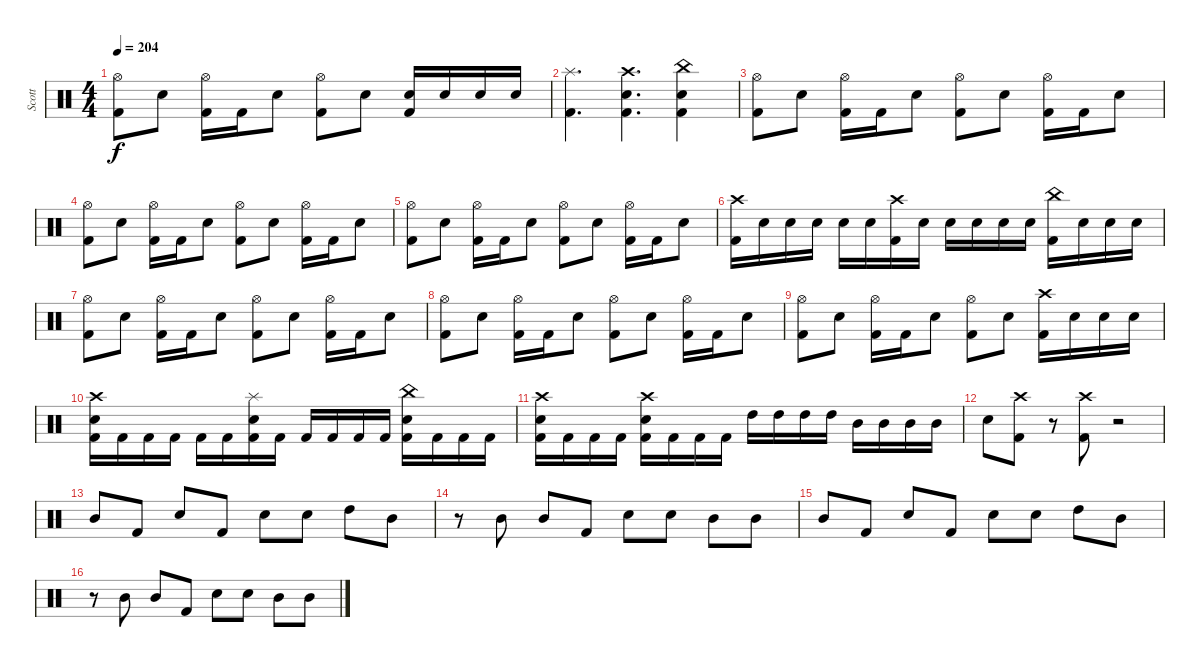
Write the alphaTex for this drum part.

\track ("Scott" "Scott") {instrument percussion}
\staff {score}
\articulation defaults
\ts (4 4)
\tempo 204
\clef neutral
\ks c
("Hi-Hat (open)" "Kick (hit) 2").8{dy f} "Snare (hit) 2".8 ("Hi-Hat (open)" "Kick (hit) 2").16 "Kick (hit) 2".16 "Snare (hit) 2".8 ("Hi-Hat (open)" "Kick (hit) 2").8 "Snare (hit) 2".8 ("Snare (hit) 2" "Kick (hit) 2").16 "Snare (hit) 2".16 "Snare (hit) 2".16 "Snare (hit) 2".16 |
("Splash (hit)" "Kick (hit) 2").4{d} ("Crash high (hit)" "Snare (hit) 2" "Kick (hit) 2").4{d} ("China (hit)" "Snare (hit) 2" "Kick (hit) 2").4 |
("Hi-Hat (open)" "Kick (hit) 2").8 "Snare (hit) 2".8 ("Hi-Hat (open)" "Kick (hit) 2").16 "Kick (hit) 2".16 "Snare (hit) 2".8 ("Hi-Hat (open)" "Kick (hit) 2").8 "Snare (hit) 2".8 ("Hi-Hat (open)" "Kick (hit) 2").16 "Kick (hit) 2".16 "Snare (hit) 2".8 |
("Hi-Hat (open)" "Kick (hit) 2").8 "Snare (hit) 2".8 ("Hi-Hat (open)" "Kick (hit) 2").16 "Kick (hit) 2".16 "Snare (hit) 2".8 ("Hi-Hat (open)" "Kick (hit) 2").8 "Snare (hit) 2".8 ("Hi-Hat (open)" "Kick (hit) 2").16 "Kick (hit) 2".16 "Snare (hit) 2".8 |
("Hi-Hat (open)" "Kick (hit) 2").8 "Snare (hit) 2".8 ("Hi-Hat (open)" "Kick (hit) 2").16 "Kick (hit) 2".16 "Snare (hit) 2".8 ("Hi-Hat (open)" "Kick (hit) 2").8 "Snare (hit) 2".8 ("Hi-Hat (open)" "Kick (hit) 2").16 "Kick (hit) 2".16 "Snare (hit) 2".8 |
("Crash high (hit)" "Kick (hit) 2").16 "Snare (hit) 2".16 "Snare (hit) 2".16 "Snare (hit) 2".16 "Snare (hit) 2".16 "Snare (hit) 2".16 ("Crash high (hit)" "Kick (hit) 2").16 "Snare (hit) 2".16 "Snare (hit) 2".16 "Snare (hit) 2".16 "Snare (hit) 2".16 "Snare (hit) 2".16 ("China (hit)" "Kick (hit) 2").16 "Snare (hit) 2".16 "Snare (hit) 2".16 "Snare (hit) 2".16 |
("Hi-Hat (open)" "Kick (hit) 2").8 "Snare (hit) 2".8 ("Hi-Hat (open)" "Kick (hit) 2").16 "Kick (hit) 2".16 "Snare (hit) 2".8 ("Hi-Hat (open)" "Kick (hit) 2").8 "Snare (hit) 2".8 ("Hi-Hat (open)" "Kick (hit) 2").16 "Kick (hit) 2".16 "Snare (hit) 2".8 |
("Hi-Hat (open)" "Kick (hit) 2").8 "Snare (hit) 2".8 ("Hi-Hat (open)" "Kick (hit) 2").16 "Kick (hit) 2".16 "Snare (hit) 2".8 ("Hi-Hat (open)" "Kick (hit) 2").8 "Snare (hit) 2".8 ("Hi-Hat (open)" "Kick (hit) 2").16 "Kick (hit) 2".16 "Snare (hit) 2".8 |
("Hi-Hat (open)" "Kick (hit) 2").8 "Snare (hit) 2".8 ("Hi-Hat (open)" "Kick (hit) 2").16 "Kick (hit) 2".16 "Snare (hit) 2".8 ("Hi-Hat (open)" "Kick (hit) 2").8 "Snare (hit) 2".8 ("Crash high (hit)" "Kick (hit) 2").16 "Snare (hit) 2".16 "Snare (hit) 2".16 "Snare (hit) 2".16 |
("Crash high (hit)" "Snare (hit) 2" "Kick (hit) 2").16 "Kick (hit) 2".16 "Kick (hit) 2".16 "Kick (hit) 2".16 "Kick (hit) 2".16 "Kick (hit) 2".16 ("Splash (hit)" "Snare (hit) 2" "Kick (hit) 2").16 "Kick (hit) 2".16 "Kick (hit) 2".16 "Kick (hit) 2".16 "Kick (hit) 2".16 "Kick (hit) 2".16 ("China (hit)" "Snare (hit) 2" "Kick (hit) 2").16 "Kick (hit) 2".16 "Kick (hit) 2".16 "Kick (hit) 2".16 |
("Crash high (hit)" "Snare (hit) 2" "Kick (hit) 2").16 "Kick (hit) 2".16 "Kick (hit) 2".16 "Kick (hit) 2".16 ("Crash high (hit)" "Snare (hit) 2" "Kick (hit) 2").16 "Kick (hit) 2".16 "Kick (hit) 2".16 "Kick (hit) 2".16 "High Tom (hit)".16 "High Tom (hit)".16 "High Tom (hit)".16 "High Tom (hit)".16 "Mid Tom (hit)".16 "Mid Tom (hit)".16 "Mid Tom (hit)".16 "Mid Tom (hit)".16 |
"Snare (hit) 2".8 ("Crash high (hit)" "Kick (hit) 2").8 r.8 ("Crash high (hit)" "Kick (hit) 2").8 r.2 |
"Mid Tom (hit)".8 "Kick (hit) 2".8 "Snare (hit) 2".8 "Kick (hit) 2".8 "Snare (hit) 2".8 "Snare (hit) 2".8 "High Tom (hit)".8 "Mid Tom (hit)".8 |
r.8 "Mid Tom (hit)".8 "Mid Tom (hit)".8 "Kick (hit) 2".8 "Snare (hit) 2".8 "Snare (hit) 2".8 "Mid Tom (hit)".8 "Mid Tom (hit)".8 |
"Mid Tom (hit)".8 "Kick (hit) 2".8 "Snare (hit) 2".8 "Kick (hit) 2".8 "Snare (hit) 2".8 "Snare (hit) 2".8 "High Tom (hit)".8 "Mid Tom (hit)".8 |
r.8 "Mid Tom (hit)".8 "Mid Tom (hit)".8 "Kick (hit) 2".8 "Snare (hit) 2".8 "Snare (hit) 2".8 "Mid Tom (hit)".8 "Mid Tom (hit)".8
